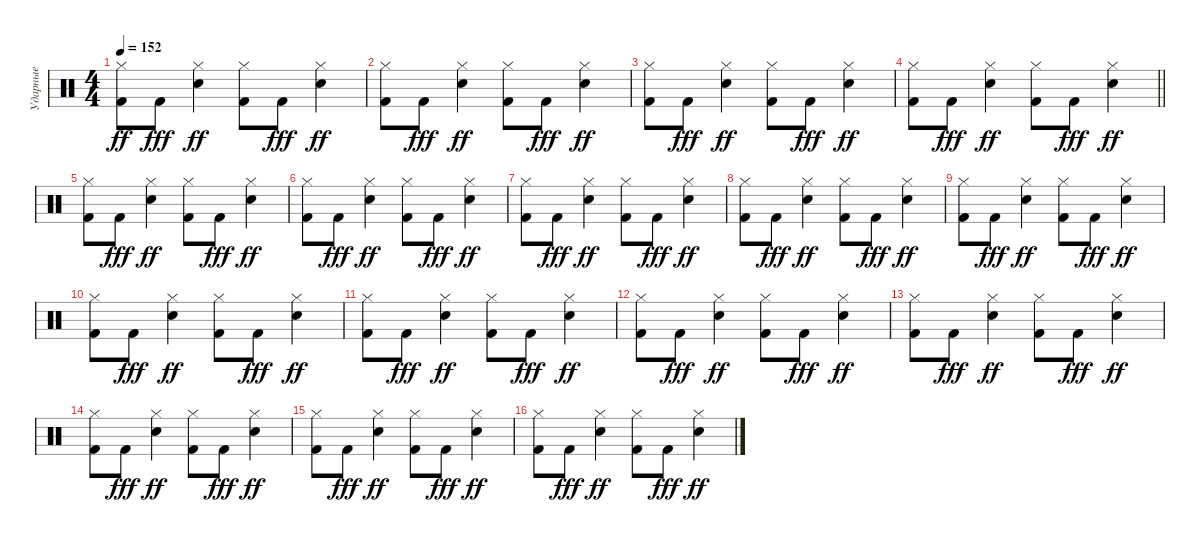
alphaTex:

\track ("Ударные" "Ударные") {instrument percussion}
\staff
\articulation defaults
\ts (4 4)
\tempo 152
\clef neutral
\ks c
("Kick (hit) 2" "Hi-Hat (closed)").8{dy ff} "Kick (hit) 2".8{dy fff} ("Snare (hit) 2" "Hi-Hat (closed)").4{dy ff} ("Kick (hit) 2" "Hi-Hat (closed)").8 "Kick (hit) 2".8{dy fff} ("Snare (hit) 2" "Hi-Hat (closed)").4{dy ff} |
("Kick (hit) 2" "Hi-Hat (closed)").8 "Kick (hit) 2".8{dy fff} ("Snare (hit) 2" "Hi-Hat (closed)").4{dy ff} ("Kick (hit) 2" "Hi-Hat (closed)").8 "Kick (hit) 2".8{dy fff} ("Snare (hit) 2" "Hi-Hat (closed)").4{dy ff} |
("Kick (hit) 2" "Hi-Hat (closed)").8 "Kick (hit) 2".8{dy fff} ("Snare (hit) 2" "Hi-Hat (closed)").4{dy ff} ("Kick (hit) 2" "Hi-Hat (closed)").8 "Kick (hit) 2".8{dy fff} ("Snare (hit) 2" "Hi-Hat (closed)").4{dy ff} |
\barLineRight lightlight
("Kick (hit) 2" "Hi-Hat (closed)").8 "Kick (hit) 2".8{dy fff} ("Snare (hit) 2" "Hi-Hat (closed)").4{dy ff} ("Kick (hit) 2" "Hi-Hat (closed)").8 "Kick (hit) 2".8{dy fff} ("Snare (hit) 2" "Hi-Hat (closed)").4{dy ff} |
("Kick (hit) 2" "Hi-Hat (closed)").8 "Kick (hit) 2".8{dy fff} ("Snare (hit) 2" "Hi-Hat (closed)").4{dy ff} ("Kick (hit) 2" "Hi-Hat (closed)").8 "Kick (hit) 2".8{dy fff} ("Snare (hit) 2" "Hi-Hat (closed)").4{dy ff} |
("Kick (hit) 2" "Hi-Hat (closed)").8 "Kick (hit) 2".8{dy fff} ("Snare (hit) 2" "Hi-Hat (closed)").4{dy ff} ("Kick (hit) 2" "Hi-Hat (closed)").8 "Kick (hit) 2".8{dy fff} ("Snare (hit) 2" "Hi-Hat (closed)").4{dy ff} |
("Kick (hit) 2" "Hi-Hat (closed)").8 "Kick (hit) 2".8{dy fff} ("Snare (hit) 2" "Hi-Hat (closed)").4{dy ff} ("Kick (hit) 2" "Hi-Hat (closed)").8 "Kick (hit) 2".8{dy fff} ("Snare (hit) 2" "Hi-Hat (closed)").4{dy ff} |
("Kick (hit) 2" "Hi-Hat (closed)").8 "Kick (hit) 2".8{dy fff} ("Snare (hit) 2" "Hi-Hat (closed)").4{dy ff} ("Kick (hit) 2" "Hi-Hat (closed)").8 "Kick (hit) 2".8{dy fff} ("Snare (hit) 2" "Hi-Hat (closed)").4{dy ff} |
("Kick (hit) 2" "Hi-Hat (closed)").8 "Kick (hit) 2".8{dy fff} ("Snare (hit) 2" "Hi-Hat (closed)").4{dy ff} ("Kick (hit) 2" "Hi-Hat (closed)").8 "Kick (hit) 2".8{dy fff} ("Snare (hit) 2" "Hi-Hat (closed)").4{dy ff} |
("Kick (hit) 2" "Hi-Hat (closed)").8 "Kick (hit) 2".8{dy fff} ("Snare (hit) 2" "Hi-Hat (closed)").4{dy ff} ("Kick (hit) 2" "Hi-Hat (closed)").8 "Kick (hit) 2".8{dy fff} ("Snare (hit) 2" "Hi-Hat (closed)").4{dy ff} |
("Kick (hit) 2" "Hi-Hat (closed)").8 "Kick (hit) 2".8{dy fff} ("Snare (hit) 2" "Hi-Hat (closed)").4{dy ff} ("Kick (hit) 2" "Hi-Hat (closed)").8 "Kick (hit) 2".8{dy fff} ("Snare (hit) 2" "Hi-Hat (closed)").4{dy ff} |
("Kick (hit) 2" "Hi-Hat (closed)").8 "Kick (hit) 2".8{dy fff} ("Snare (hit) 2" "Hi-Hat (closed)").4{dy ff} ("Kick (hit) 2" "Hi-Hat (closed)").8 "Kick (hit) 2".8{dy fff} ("Snare (hit) 2" "Hi-Hat (closed)").4{dy ff} |
("Kick (hit) 2" "Hi-Hat (closed)").8 "Kick (hit) 2".8{dy fff} ("Snare (hit) 2" "Hi-Hat (closed)").4{dy ff} ("Kick (hit) 2" "Hi-Hat (closed)").8 "Kick (hit) 2".8{dy fff} ("Snare (hit) 2" "Hi-Hat (closed)").4{dy ff} |
("Kick (hit) 2" "Hi-Hat (closed)").8 "Kick (hit) 2".8{dy fff} ("Snare (hit) 2" "Hi-Hat (closed)").4{dy ff} ("Kick (hit) 2" "Hi-Hat (closed)").8 "Kick (hit) 2".8{dy fff} ("Snare (hit) 2" "Hi-Hat (closed)").4{dy ff} |
("Kick (hit) 2" "Hi-Hat (closed)").8 "Kick (hit) 2".8{dy fff} ("Snare (hit) 2" "Hi-Hat (closed)").4{dy ff} ("Kick (hit) 2" "Hi-Hat (closed)").8 "Kick (hit) 2".8{dy fff} ("Snare (hit) 2" "Hi-Hat (closed)").4{dy ff} |
("Kick (hit) 2" "Hi-Hat (closed)").8 "Kick (hit) 2".8{dy fff} ("Snare (hit) 2" "Hi-Hat (closed)").4{dy ff} ("Kick (hit) 2" "Hi-Hat (closed)").8 "Kick (hit) 2".8{dy fff} ("Snare (hit) 2" "Hi-Hat (closed)").4{dy ff}
